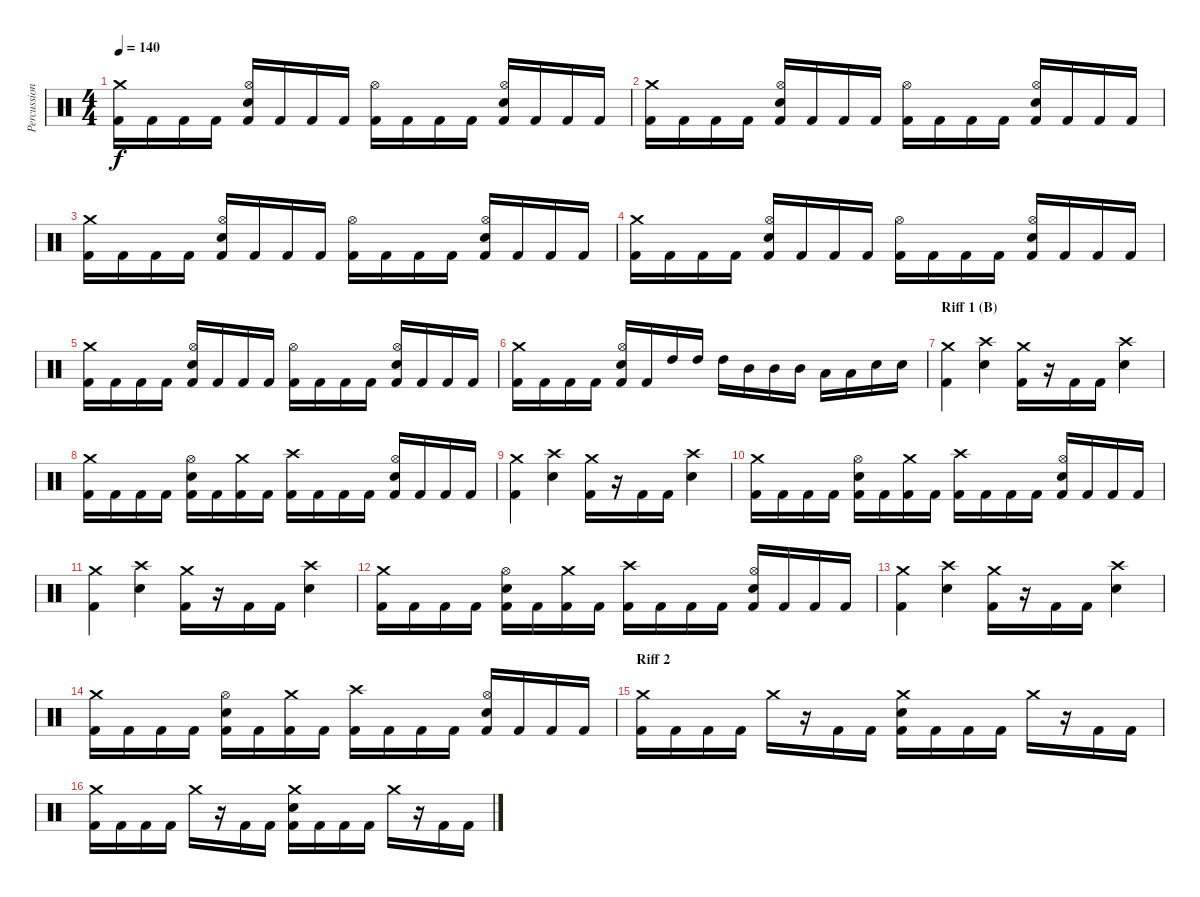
\track ("Percussions" "Percussion") {instrument percussion}
\staff {score}
\articulation defaults
\ts (4 4)
\tempo 140
\clef neutral
\ks c
("Crash medium (hit)" "Kick (hit) 2").16{dy f} "Kick (hit) 2".16 "Kick (hit) 2".16 "Kick (hit) 2".16 ("Hi-Hat (open)" "Snare (hit) 2" "Kick (hit) 2").16 "Kick (hit) 2".16 "Kick (hit) 2".16 "Kick (hit) 2".16 ("Hi-Hat (open)" "Kick (hit) 2").16 "Kick (hit) 2".16 "Kick (hit) 2".16 "Kick (hit) 2".16 ("Hi-Hat (open)" "Snare (hit) 2" "Kick (hit) 2").16 "Kick (hit) 2".16 "Kick (hit) 2".16 "Kick (hit) 2".16 |
("Crash medium (hit)" "Kick (hit) 2").16 "Kick (hit) 2".16 "Kick (hit) 2".16 "Kick (hit) 2".16 ("Hi-Hat (open)" "Snare (hit) 2" "Kick (hit) 2").16 "Kick (hit) 2".16 "Kick (hit) 2".16 "Kick (hit) 2".16 ("Hi-Hat (open)" "Kick (hit) 2").16 "Kick (hit) 2".16 "Kick (hit) 2".16 "Kick (hit) 2".16 ("Hi-Hat (open)" "Snare (hit) 2" "Kick (hit) 2").16 "Kick (hit) 2".16 "Kick (hit) 2".16 "Kick (hit) 2".16 |
("Crash medium (hit)" "Kick (hit) 2").16 "Kick (hit) 2".16 "Kick (hit) 2".16 "Kick (hit) 2".16 ("Hi-Hat (open)" "Snare (hit) 2" "Kick (hit) 2").16 "Kick (hit) 2".16 "Kick (hit) 2".16 "Kick (hit) 2".16 ("Hi-Hat (open)" "Kick (hit) 2").16 "Kick (hit) 2".16 "Kick (hit) 2".16 "Kick (hit) 2".16 ("Hi-Hat (open)" "Snare (hit) 2" "Kick (hit) 2").16 "Kick (hit) 2".16 "Kick (hit) 2".16 "Kick (hit) 2".16 |
("Crash medium (hit)" "Kick (hit) 2").16 "Kick (hit) 2".16 "Kick (hit) 2".16 "Kick (hit) 2".16 ("Hi-Hat (open)" "Snare (hit) 2" "Kick (hit) 2").16 "Kick (hit) 2".16 "Kick (hit) 2".16 "Kick (hit) 2".16 ("Hi-Hat (open)" "Kick (hit) 2").16 "Kick (hit) 2".16 "Kick (hit) 2".16 "Kick (hit) 2".16 ("Hi-Hat (open)" "Snare (hit) 2" "Kick (hit) 2").16 "Kick (hit) 2".16 "Kick (hit) 2".16 "Kick (hit) 2".16 |
("Crash medium (hit)" "Kick (hit) 2").16 "Kick (hit) 2".16 "Kick (hit) 2".16 "Kick (hit) 2".16 ("Hi-Hat (open)" "Snare (hit) 2" "Kick (hit) 2").16 "Kick (hit) 2".16 "Kick (hit) 2".16 "Kick (hit) 2".16 ("Hi-Hat (open)" "Kick (hit) 2").16 "Kick (hit) 2".16 "Kick (hit) 2".16 "Kick (hit) 2".16 ("Hi-Hat (open)" "Snare (hit) 2" "Kick (hit) 2").16 "Kick (hit) 2".16 "Kick (hit) 2".16 "Kick (hit) 2".16 |
("Crash medium (hit)" "Kick (hit) 2").16 "Kick (hit) 2".16 "Kick (hit) 2".16 "Kick (hit) 2".16 ("Hi-Hat (open)" "Snare (hit) 2" "Kick (hit) 2").16 "Kick (hit) 2".16 "High Tom (hit)".16 "High Tom (hit)".16 "High Tom (hit)".16 "Mid Tom (hit)".16 "Mid Tom (hit)".16 "Mid Tom (hit)".16 "Low Tom (hit)".16 "Low Tom (hit)".16 "Snare (hit) 2".16 "Snare (hit) 2".16 |
\section ("" "Riff 1 (B)")
("Crash medium (hit)" "Kick (hit) 2").4 ("Crash high (hit)" "Snare (hit) 2").4 ("Crash medium (hit)" "Kick (hit) 2").16 r.16 "Kick (hit) 2".16 "Kick (hit) 2".16 ("Crash high (hit)" "Snare (hit) 2").4 |
("Crash medium (hit)" "Kick (hit) 2").16 "Kick (hit) 2".16 "Kick (hit) 2".16 "Kick (hit) 2".16 ("Hi-Hat (open)" "Snare (hit) 2" "Kick (hit) 2").16 "Kick (hit) 2".16 ("Crash medium (hit)" "Kick (hit) 2").16 "Kick (hit) 2".16 ("Crash high (hit)" "Kick (hit) 2").16 "Kick (hit) 2".16 "Kick (hit) 2".16 "Kick (hit) 2".16 ("Hi-Hat (open)" "Snare (hit) 2" "Kick (hit) 2").16 "Kick (hit) 2".16 "Kick (hit) 2".16 "Kick (hit) 2".16 |
("Crash medium (hit)" "Kick (hit) 2").4 ("Crash high (hit)" "Snare (hit) 2").4 ("Crash medium (hit)" "Kick (hit) 2").16 r.16 "Kick (hit) 2".16 "Kick (hit) 2".16 ("Crash high (hit)" "Snare (hit) 2").4 |
("Crash medium (hit)" "Kick (hit) 2").16 "Kick (hit) 2".16 "Kick (hit) 2".16 "Kick (hit) 2".16 ("Hi-Hat (open)" "Snare (hit) 2" "Kick (hit) 2").16 "Kick (hit) 2".16 ("Crash medium (hit)" "Kick (hit) 2").16 "Kick (hit) 2".16 ("Crash high (hit)" "Kick (hit) 2").16 "Kick (hit) 2".16 "Kick (hit) 2".16 "Kick (hit) 2".16 ("Hi-Hat (open)" "Snare (hit) 2" "Kick (hit) 2").16 "Kick (hit) 2".16 "Kick (hit) 2".16 "Kick (hit) 2".16 |
("Crash medium (hit)" "Kick (hit) 2").4 ("Crash high (hit)" "Snare (hit) 2").4 ("Crash medium (hit)" "Kick (hit) 2").16 r.16 "Kick (hit) 2".16 "Kick (hit) 2".16 ("Crash high (hit)" "Snare (hit) 2").4 |
("Crash medium (hit)" "Kick (hit) 2").16 "Kick (hit) 2".16 "Kick (hit) 2".16 "Kick (hit) 2".16 ("Hi-Hat (open)" "Snare (hit) 2" "Kick (hit) 2").16 "Kick (hit) 2".16 ("Crash medium (hit)" "Kick (hit) 2").16 "Kick (hit) 2".16 ("Crash high (hit)" "Kick (hit) 2").16 "Kick (hit) 2".16 "Kick (hit) 2".16 "Kick (hit) 2".16 ("Hi-Hat (open)" "Snare (hit) 2" "Kick (hit) 2").16 "Kick (hit) 2".16 "Kick (hit) 2".16 "Kick (hit) 2".16 |
("Crash medium (hit)" "Kick (hit) 2").4 ("Crash high (hit)" "Snare (hit) 2").4 ("Crash medium (hit)" "Kick (hit) 2").16 r.16 "Kick (hit) 2".16 "Kick (hit) 2".16 ("Crash high (hit)" "Snare (hit) 2").4 |
("Crash medium (hit)" "Kick (hit) 2").16 "Kick (hit) 2".16 "Kick (hit) 2".16 "Kick (hit) 2".16 ("Hi-Hat (open)" "Snare (hit) 2" "Kick (hit) 2").16 "Kick (hit) 2".16 ("Crash medium (hit)" "Kick (hit) 2").16 "Kick (hit) 2".16 ("Crash high (hit)" "Kick (hit) 2").16 "Kick (hit) 2".16 "Kick (hit) 2".16 "Kick (hit) 2".16 ("Hi-Hat (open)" "Snare (hit) 2" "Kick (hit) 2").16 "Kick (hit) 2".16 "Kick (hit) 2".16 "Kick (hit) 2".16 |
\section ("" "Riff 2")
("Crash medium (hit)" "Kick (hit) 2").16 "Kick (hit) 2".16 "Kick (hit) 2".16 "Kick (hit) 2".16 "Crash medium (hit)".16 r.16 "Kick (hit) 2".16 "Kick (hit) 2".16 ("Crash medium (hit)" "Snare (hit) 2" "Kick (hit) 2").16 "Kick (hit) 2".16 "Kick (hit) 2".16 "Kick (hit) 2".16 "Crash medium (hit)".16 r.16 "Kick (hit) 2".16 "Kick (hit) 2".16 |
("Crash medium (hit)" "Kick (hit) 2").16 "Kick (hit) 2".16 "Kick (hit) 2".16 "Kick (hit) 2".16 "Crash medium (hit)".16 r.16 "Kick (hit) 2".16 "Kick (hit) 2".16 ("Crash medium (hit)" "Snare (hit) 2" "Kick (hit) 2").16 "Kick (hit) 2".16 "Kick (hit) 2".16 "Kick (hit) 2".16 "Crash medium (hit)".16 r.16 "Kick (hit) 2".16 "Kick (hit) 2".16
